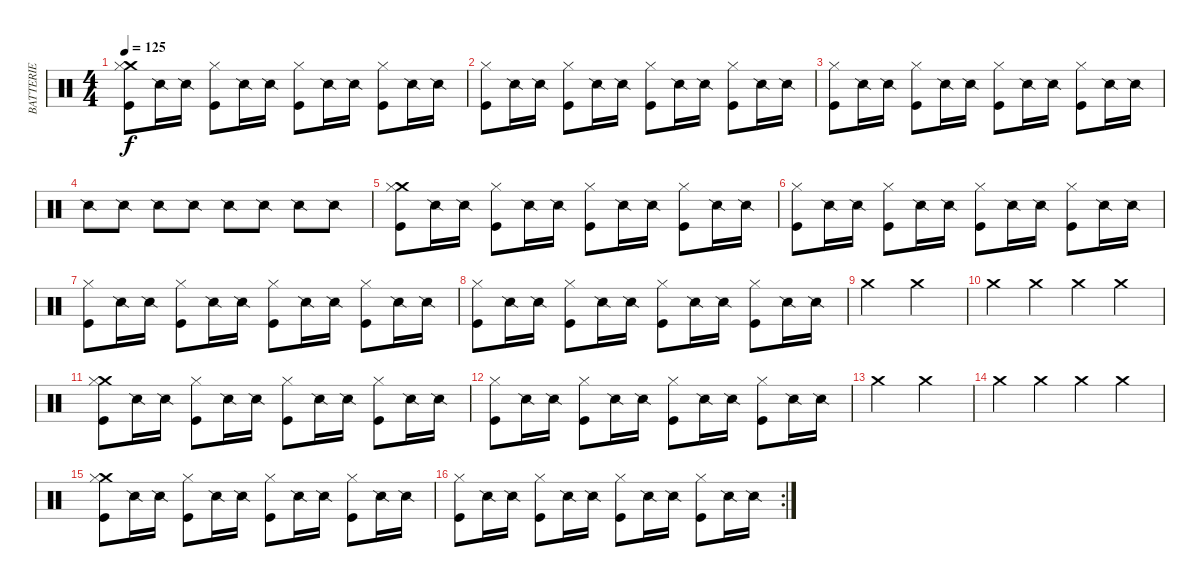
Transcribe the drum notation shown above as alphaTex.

\track ("BATTERIE" "BATTERIE") {instrument percussion}
\staff {score}
\articulation defaults
\ts (4 4)
\tempo 125
\clef neutral
\ks c
("Crash medium (hit)" "Hi-Hat (closed)" "Kick (hit)").8{dy f} "Snare (side stick) 2".16 "Snare (side stick) 2".16 ("Hi-Hat (closed)" "Kick (hit)").8 "Snare (side stick) 2".16 "Snare (side stick) 2".16 ("Hi-Hat (closed)" "Kick (hit)").8 "Snare (side stick) 2".16 "Snare (side stick) 2".16 ("Hi-Hat (closed)" "Kick (hit)").8 "Snare (side stick) 2".16 "Snare (side stick) 2".16 |
("Hi-Hat (closed)" "Kick (hit)").8 "Snare (side stick) 2".16 "Snare (side stick) 2".16 ("Hi-Hat (closed)" "Kick (hit)").8 "Snare (side stick) 2".16 "Snare (side stick) 2".16 ("Hi-Hat (closed)" "Kick (hit)").8 "Snare (side stick) 2".16 "Snare (side stick) 2".16 ("Hi-Hat (closed)" "Kick (hit)").8 "Snare (side stick) 2".16 "Snare (side stick) 2".16 |
("Hi-Hat (closed)" "Kick (hit)").8 "Snare (side stick) 2".16 "Snare (side stick) 2".16 ("Hi-Hat (closed)" "Kick (hit)").8 "Snare (side stick) 2".16 "Snare (side stick) 2".16 ("Hi-Hat (closed)" "Kick (hit)").8 "Snare (side stick) 2".16 "Snare (side stick) 2".16 ("Hi-Hat (closed)" "Kick (hit)").8 "Snare (side stick) 2".16 "Snare (side stick) 2".16 |
"Snare (side stick) 2".8 "Snare (side stick) 2".8 "Snare (side stick) 2".8 "Snare (side stick) 2".8 "Snare (side stick) 2".8 "Snare (side stick) 2".8 "Snare (side stick) 2".8 "Snare (side stick) 2".8 |
("Crash medium (hit)" "Hi-Hat (closed)" "Kick (hit)").8 "Snare (side stick) 2".16 "Snare (side stick) 2".16 ("Hi-Hat (closed)" "Kick (hit)").8 "Snare (side stick) 2".16 "Snare (side stick) 2".16 ("Hi-Hat (closed)" "Kick (hit)").8 "Snare (side stick) 2".16 "Snare (side stick) 2".16 ("Hi-Hat (closed)" "Kick (hit)").8 "Snare (side stick) 2".16 "Snare (side stick) 2".16 |
("Hi-Hat (closed)" "Kick (hit)").8 "Snare (side stick) 2".16 "Snare (side stick) 2".16 ("Hi-Hat (closed)" "Kick (hit)").8 "Snare (side stick) 2".16 "Snare (side stick) 2".16 ("Hi-Hat (closed)" "Kick (hit)").8 "Snare (side stick) 2".16 "Snare (side stick) 2".16 ("Hi-Hat (closed)" "Kick (hit)").8 "Snare (side stick) 2".16 "Snare (side stick) 2".16 |
("Hi-Hat (closed)" "Kick (hit)").8 "Snare (side stick) 2".16 "Snare (side stick) 2".16 ("Hi-Hat (closed)" "Kick (hit)").8 "Snare (side stick) 2".16 "Snare (side stick) 2".16 ("Hi-Hat (closed)" "Kick (hit)").8 "Snare (side stick) 2".16 "Snare (side stick) 2".16 ("Hi-Hat (closed)" "Kick (hit)").8 "Snare (side stick) 2".16 "Snare (side stick) 2".16 |
("Hi-Hat (closed)" "Kick (hit)").8 "Snare (side stick) 2".16 "Snare (side stick) 2".16 ("Hi-Hat (closed)" "Kick (hit)").8 "Snare (side stick) 2".16 "Snare (side stick) 2".16 ("Hi-Hat (closed)" "Kick (hit)").8 "Snare (side stick) 2".16 "Snare (side stick) 2".16 ("Hi-Hat (closed)" "Kick (hit)").8 "Snare (side stick) 2".16 "Snare (side stick) 2".16 |
"Crash medium (hit)".2 "Crash medium (hit)".2 |
"Crash medium (hit)".4 "Crash medium (hit)".4 "Crash medium (hit)".4 "Crash medium (hit)".4 |
("Crash medium (hit)" "Hi-Hat (closed)" "Kick (hit)").8 "Snare (side stick) 2".16 "Snare (side stick) 2".16 ("Hi-Hat (closed)" "Kick (hit)").8 "Snare (side stick) 2".16 "Snare (side stick) 2".16 ("Hi-Hat (closed)" "Kick (hit)").8 "Snare (side stick) 2".16 "Snare (side stick) 2".16 ("Hi-Hat (closed)" "Kick (hit)").8 "Snare (side stick) 2".16 "Snare (side stick) 2".16 |
("Hi-Hat (closed)" "Kick (hit)").8 "Snare (side stick) 2".16 "Snare (side stick) 2".16 ("Hi-Hat (closed)" "Kick (hit)").8 "Snare (side stick) 2".16 "Snare (side stick) 2".16 ("Hi-Hat (closed)" "Kick (hit)").8 "Snare (side stick) 2".16 "Snare (side stick) 2".16 ("Hi-Hat (closed)" "Kick (hit)").8 "Snare (side stick) 2".16 "Snare (side stick) 2".16 |
"Crash medium (hit)".2 "Crash medium (hit)".2 |
"Crash medium (hit)".4 "Crash medium (hit)".4 "Crash medium (hit)".4 "Crash medium (hit)".4 |
("Crash medium (hit)" "Hi-Hat (closed)" "Kick (hit)").8 "Snare (side stick) 2".16 "Snare (side stick) 2".16 ("Hi-Hat (closed)" "Kick (hit)").8 "Snare (side stick) 2".16 "Snare (side stick) 2".16 ("Hi-Hat (closed)" "Kick (hit)").8 "Snare (side stick) 2".16 "Snare (side stick) 2".16 ("Hi-Hat (closed)" "Kick (hit)").8 "Snare (side stick) 2".16 "Snare (side stick) 2".16 |
\rc 2
("Hi-Hat (closed)" "Kick (hit)").8 "Snare (side stick) 2".16 "Snare (side stick) 2".16 ("Hi-Hat (closed)" "Kick (hit)").8 "Snare (side stick) 2".16 "Snare (side stick) 2".16 ("Hi-Hat (closed)" "Kick (hit)").8 "Snare (side stick) 2".16 "Snare (side stick) 2".16 ("Hi-Hat (closed)" "Kick (hit)").8 "Snare (side stick) 2".16 "Snare (side stick) 2".16
